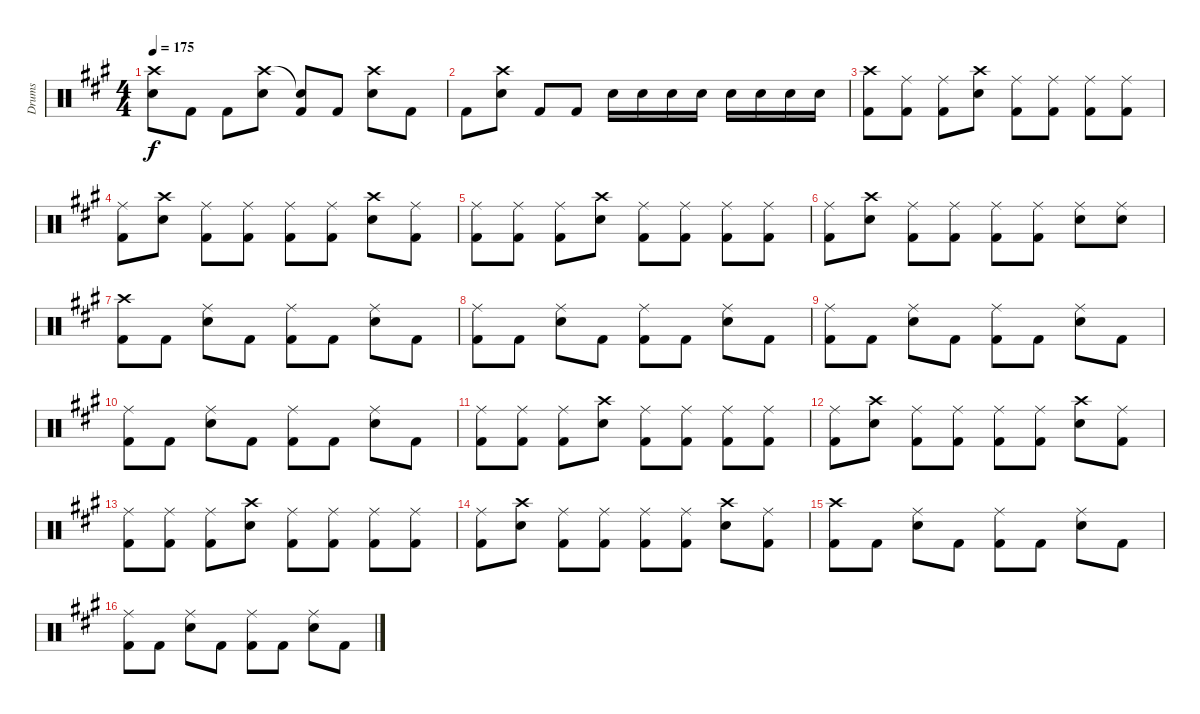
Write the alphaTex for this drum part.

\track ("Drums" "Drums") {instrument percussion}
\staff {score}
\articulation defaults
\ts (4 4)
\tempo 175
\clef neutral
\ks a
("Crash high (hit)" "Snare (hit) 2").8{dy f} "Kick (hit) 2".8 "Kick (hit) 2".8 ("Crash high (hit)" "Snare (hit) 2").8 ("Snare (hit)"{t} "Kick (hit) 2").8 "Kick (hit) 2".8 ("Crash high (hit)" "Snare (hit) 2").8 "Kick (hit) 2".8 |
"Kick (hit) 2".8 ("Crash high (hit)" "Snare (hit) 2").8 "Kick (hit) 2".8 "Kick (hit) 2".8 "Snare (hit) 2".16 "Snare (hit) 2".16 "Snare (hit) 2".16 "Snare (hit) 2".16 "Snare (hit) 2".16 "Snare (hit) 2".16 "Snare (hit) 2".16 "Snare (hit) 2".16 |
("Crash high (hit)" "Kick (hit) 2").8 ("Ride (middle)" "Kick (hit) 2").8 ("Ride (middle)" "Kick (hit) 2").8 ("Crash high (hit)" "Snare (hit) 2").8 ("Ride (middle)" "Kick (hit) 2").8 ("Ride (middle)" "Kick (hit) 2").8 ("Ride (middle)" "Kick (hit) 2").8 ("Ride (middle)" "Kick (hit) 2").8 |
("Ride (middle)" "Kick (hit) 2").8 ("Crash high (hit)" "Snare (hit) 2").8 ("Ride (middle)" "Kick (hit) 2").8 ("Ride (middle)" "Kick (hit) 2").8 ("Ride (middle)" "Kick (hit) 2").8 ("Ride (middle)" "Kick (hit) 2").8 ("Crash high (hit)" "Snare (hit) 2").8 ("Ride (middle)" "Kick (hit) 2").8 |
("Ride (middle)" "Kick (hit) 2").8 ("Ride (middle)" "Kick (hit) 2").8 ("Ride (middle)" "Kick (hit) 2").8 ("Crash high (hit)" "Snare (hit) 2").8 ("Ride (middle)" "Kick (hit) 2").8 ("Ride (middle)" "Kick (hit) 2").8 ("Ride (middle)" "Kick (hit) 2").8 ("Ride (middle)" "Kick (hit) 2").8 |
("Ride (middle)" "Kick (hit) 2").8 ("Crash high (hit)" "Snare (hit) 2").8 ("Ride (middle)" "Kick (hit) 2").8 ("Ride (middle)" "Kick (hit) 2").8 ("Ride (middle)" "Kick (hit) 2").8 ("Ride (middle)" "Kick (hit) 2").8 ("Ride (middle)" "Snare (hit) 2").8 ("Ride (middle)" "Snare (hit) 2").8 |
("Crash high (hit)" "Kick (hit) 2").8 "Kick (hit) 2".8 ("Ride (middle)" "Snare (hit) 2").8 "Kick (hit) 2".8 ("Ride (middle)" "Kick (hit) 2").8 "Kick (hit) 2".8 ("Ride (middle)" "Snare (hit) 2").8 "Kick (hit) 2".8 |
("Ride (middle)" "Kick (hit) 2").8 "Kick (hit) 2".8 ("Ride (middle)" "Snare (hit) 2").8 "Kick (hit) 2".8 ("Ride (middle)" "Kick (hit) 2").8 "Kick (hit) 2".8 ("Ride (middle)" "Snare (hit) 2").8 "Kick (hit) 2".8 |
("Ride (middle)" "Kick (hit) 2").8 "Kick (hit) 2".8 ("Ride (middle)" "Snare (hit) 2").8 "Kick (hit) 2".8 ("Ride (middle)" "Kick (hit) 2").8 "Kick (hit) 2".8 ("Ride (middle)" "Snare (hit) 2").8 "Kick (hit) 2".8 |
("Ride (middle)" "Kick (hit) 2").8 "Kick (hit) 2".8 ("Ride (middle)" "Snare (hit) 2").8 "Kick (hit) 2".8 ("Ride (middle)" "Kick (hit) 2").8 "Kick (hit) 2".8 ("Ride (middle)" "Snare (hit) 2").8 "Kick (hit) 2".8 |
("Ride (middle)" "Kick (hit) 2").8 ("Ride (middle)" "Kick (hit) 2").8 ("Ride (middle)" "Kick (hit) 2").8 ("Crash high (hit)" "Snare (hit) 2").8 ("Ride (middle)" "Kick (hit) 2").8 ("Ride (middle)" "Kick (hit) 2").8 ("Ride (middle)" "Kick (hit) 2").8 ("Ride (middle)" "Kick (hit) 2").8 |
("Ride (middle)" "Kick (hit) 2").8 ("Crash high (hit)" "Snare (hit) 2").8 ("Ride (middle)" "Kick (hit) 2").8 ("Ride (middle)" "Kick (hit) 2").8 ("Ride (middle)" "Kick (hit) 2").8 ("Ride (middle)" "Kick (hit) 2").8 ("Crash high (hit)" "Snare (hit) 2").8 ("Ride (middle)" "Kick (hit) 2").8 |
("Ride (middle)" "Kick (hit) 2").8 ("Ride (middle)" "Kick (hit) 2").8 ("Ride (middle)" "Kick (hit) 2").8 ("Crash high (hit)" "Snare (hit) 2").8 ("Ride (middle)" "Kick (hit) 2").8 ("Ride (middle)" "Kick (hit) 2").8 ("Ride (middle)" "Kick (hit) 2").8 ("Ride (middle)" "Kick (hit) 2").8 |
("Ride (middle)" "Kick (hit) 2").8 ("Crash high (hit)" "Snare (hit) 2").8 ("Ride (middle)" "Kick (hit) 2").8 ("Ride (middle)" "Kick (hit) 2").8 ("Ride (middle)" "Kick (hit) 2").8 ("Ride (middle)" "Kick (hit) 2").8 ("Crash high (hit)" "Snare (hit) 2").8 ("Ride (middle)" "Kick (hit) 2").8 |
("Crash high (hit)" "Kick (hit) 2").8 "Kick (hit) 2".8 ("Ride (middle)" "Snare (hit) 2").8 "Kick (hit) 2".8 ("Ride (middle)" "Kick (hit) 2").8 "Kick (hit) 2".8 ("Ride (middle)" "Snare (hit) 2").8 "Kick (hit) 2".8 |
("Ride (middle)" "Kick (hit) 2").8 "Kick (hit) 2".8 ("Ride (middle)" "Snare (hit) 2").8 "Kick (hit) 2".8 ("Ride (middle)" "Kick (hit) 2").8 "Kick (hit) 2".8 ("Ride (middle)" "Snare (hit) 2").8 "Kick (hit) 2".8
